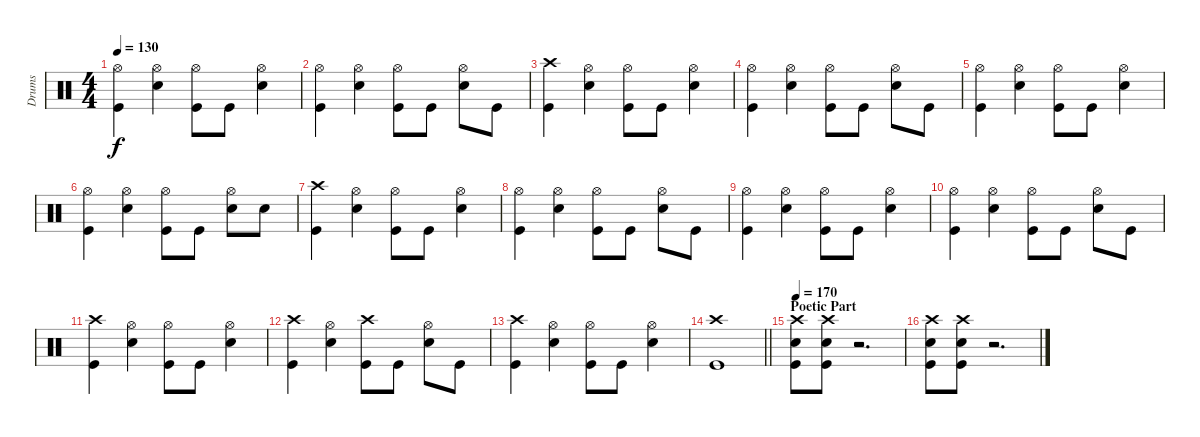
\track ("Drums" "Drums") {instrument percussion}
\staff {score}
\articulation defaults
\ts (4 4)
\tempo 130
\clef neutral
\ks c
("Hi-Hat (open)" "Kick (hit)").4{dy f} ("Hi-Hat (open)" "Electric Snare (hit)").4 ("Hi-Hat (open)" "Kick (hit)").8 "Kick (hit)".8 ("Hi-Hat (open)" "Electric Snare (hit)").4 |
("Hi-Hat (open)" "Kick (hit)").4 ("Hi-Hat (open)" "Electric Snare (hit)").4 ("Hi-Hat (open)" "Kick (hit)").8 "Kick (hit)".8 ("Hi-Hat (open)" "Electric Snare (hit)").8 "Kick (hit)".8 |
("Crash high (hit)" "Kick (hit)").4 ("Hi-Hat (open)" "Electric Snare (hit)").4 ("Hi-Hat (open)" "Kick (hit)").8 "Kick (hit)".8 ("Hi-Hat (open)" "Electric Snare (hit)").4 |
("Hi-Hat (open)" "Kick (hit)").4 ("Hi-Hat (open)" "Electric Snare (hit)").4 ("Hi-Hat (open)" "Kick (hit)").8 "Kick (hit)".8 ("Hi-Hat (open)" "Electric Snare (hit)").8 "Kick (hit)".8 |
("Hi-Hat (open)" "Kick (hit)").4 ("Hi-Hat (open)" "Electric Snare (hit)").4 ("Hi-Hat (open)" "Kick (hit)").8 "Kick (hit)".8 ("Hi-Hat (open)" "Electric Snare (hit)").4 |
("Hi-Hat (open)" "Kick (hit)").4 ("Hi-Hat (open)" "Electric Snare (hit)").4 ("Hi-Hat (open)" "Kick (hit)").8 "Kick (hit)".8 ("Hi-Hat (open)" "Electric Snare (hit)").8 "Electric Snare (hit)".8 |
("Crash high (hit)" "Kick (hit)").4 ("Hi-Hat (open)" "Electric Snare (hit)").4 ("Hi-Hat (open)" "Kick (hit)").8 "Kick (hit)".8 ("Hi-Hat (open)" "Electric Snare (hit)").4 |
("Hi-Hat (open)" "Kick (hit)").4 ("Hi-Hat (open)" "Electric Snare (hit)").4 ("Hi-Hat (open)" "Kick (hit)").8 "Kick (hit)".8 ("Hi-Hat (open)" "Electric Snare (hit)").8 "Kick (hit)".8 |
("Hi-Hat (open)" "Kick (hit)").4 ("Hi-Hat (open)" "Electric Snare (hit)").4 ("Hi-Hat (open)" "Kick (hit)").8 "Kick (hit)".8 ("Hi-Hat (open)" "Electric Snare (hit)").4 |
("Hi-Hat (open)" "Kick (hit)").4 ("Hi-Hat (open)" "Electric Snare (hit)").4 ("Hi-Hat (open)" "Kick (hit)").8 "Kick (hit)".8 ("Hi-Hat (open)" "Electric Snare (hit)").8 "Kick (hit)".8 |
("Crash high (hit)" "Kick (hit)").4 ("Hi-Hat (open)" "Electric Snare (hit)").4 ("Hi-Hat (open)" "Kick (hit)").8 "Kick (hit)".8 ("Hi-Hat (open)" "Electric Snare (hit)").4 |
("Crash high (hit)" "Kick (hit)").4 ("Hi-Hat (open)" "Electric Snare (hit)").4 ("Crash high (hit)" "Kick (hit)").8 "Kick (hit)".8 ("Hi-Hat (open)" "Electric Snare (hit)").8 "Kick (hit)".8 |
("Crash high (hit)" "Kick (hit)").4 ("Hi-Hat (open)" "Electric Snare (hit)").4 ("Hi-Hat (open)" "Kick (hit)").8 "Kick (hit)".8 ("Hi-Hat (open)" "Electric Snare (hit)").4 |
\barLineRight lightlight
("Crash high (hit)" "Kick (hit)").1 |
\section ("" "Poetic Part")
\tempo 170
("Crash high (hit)" "Electric Snare (hit)" "Kick (hit)").8 ("Crash high (hit)" "Electric Snare (hit)" "Kick (hit)").8 r.2{d} |
("Crash high (hit)" "Electric Snare (hit)" "Kick (hit)").8 ("Crash high (hit)" "Electric Snare (hit)" "Kick (hit)").8 r.2{d}
